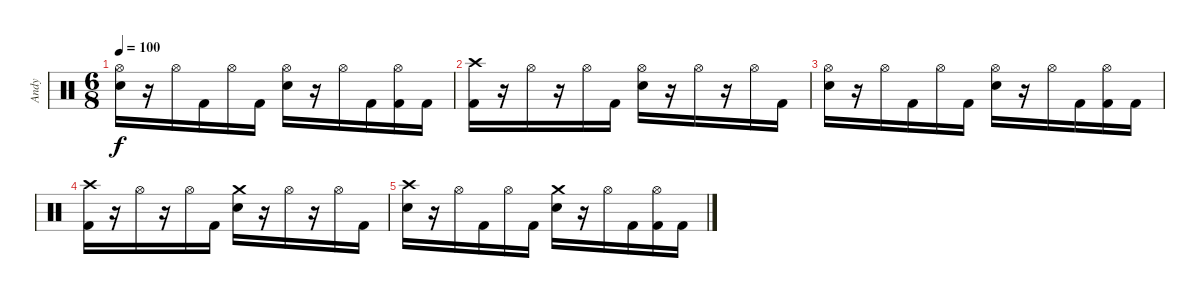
\track ("Andy" "Andy") {instrument percussion}
\staff {score}
\articulation defaults
\ts (6 8)
\tempo 100
\clef neutral
\ks c
("Hi-Hat (open)" "Electric Snare (hit)").16{dy f} r.16 "Hi-Hat (open)".16 "Kick (hit) 2".16 "Hi-Hat (open)".16 "Kick (hit) 2".16 ("Hi-Hat (open)" "Electric Snare (hit)").16 r.16 "Hi-Hat (open)".16 "Kick (hit) 2".16 ("Hi-Hat (open)" "Kick (hit) 2").16 "Kick (hit) 2".16 |
("Crash high (hit)" "Kick (hit) 2").16 r.16 "Hi-Hat (open)".16 r.16 "Hi-Hat (open)".16 "Kick (hit) 2".16 ("Hi-Hat (open)" "Electric Snare (hit)").16 r.16 "Hi-Hat (open)".16 r.16 "Hi-Hat (open)".16 "Kick (hit) 2".16 |
("Hi-Hat (open)" "Electric Snare (hit)").16 r.16 "Hi-Hat (open)".16 "Kick (hit) 2".16 "Hi-Hat (open)".16 "Kick (hit) 2".16 ("Hi-Hat (open)" "Electric Snare (hit)").16 r.16 "Hi-Hat (open)".16 "Kick (hit) 2".16 ("Hi-Hat (open)" "Kick (hit) 2").16 "Kick (hit) 2".16 |
("Crash high (hit)" "Kick (hit) 2").16 r.16 "Hi-Hat (open)".16 r.16 "Hi-Hat (open)".16 "Kick (hit) 2".16 ("Crash medium (hit)" "Electric Snare (hit)").16 r.16 "Hi-Hat (open)".16 r.16 "Hi-Hat (open)".16 "Kick (hit) 2".16 |
("Crash high (hit)" "Electric Snare (hit)").16 r.16 "Hi-Hat (open)".16 "Kick (hit) 2".16 "Hi-Hat (open)".16 "Kick (hit) 2".16 ("Crash medium (hit)" "Electric Snare (hit)").16 r.16 "Hi-Hat (open)".16 "Kick (hit) 2".16 ("Hi-Hat (open)" "Kick (hit) 2").16 "Kick (hit) 2".16
